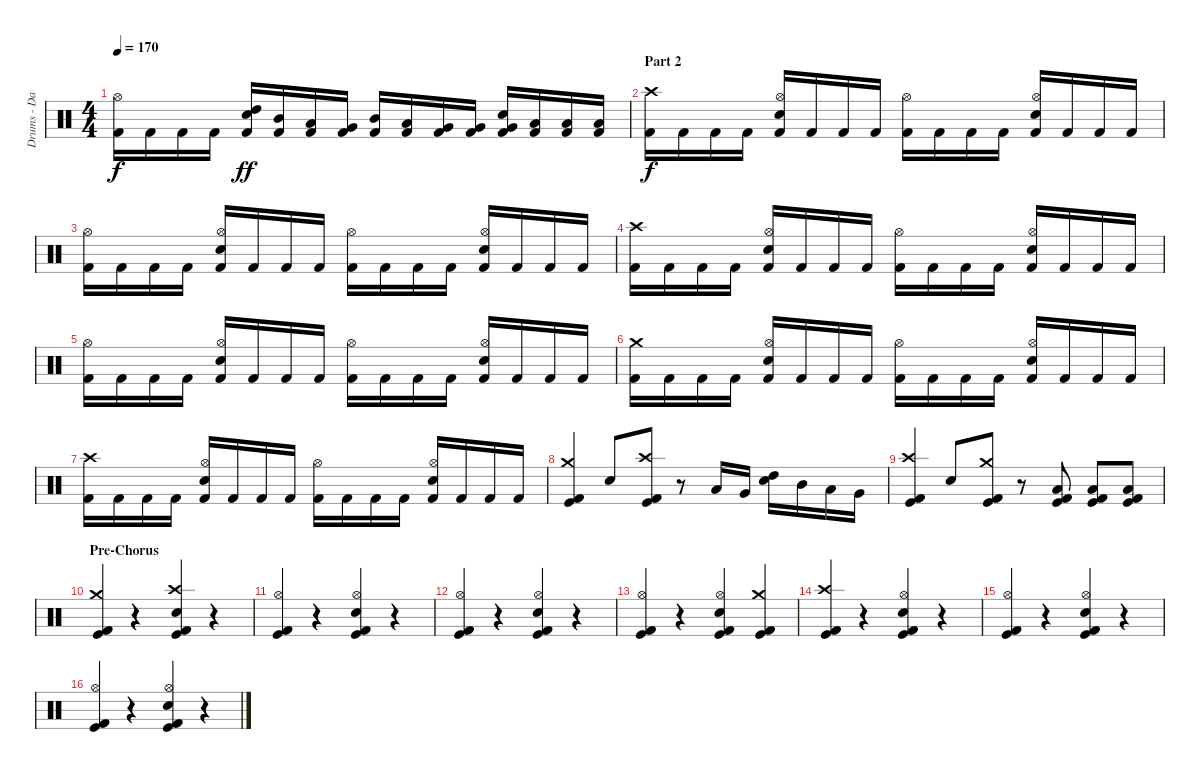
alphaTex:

\track ("Drums - Daniel Zimmermann" "Drums - Da") {instrument percussion}
\staff {score}
\articulation defaults
\ts (4 4)
\tempo 170
\clef neutral
\ks c
("Kick (hit) 2" "Hi-Hat (open)").16{dy f} "Kick (hit) 2".16 "Kick (hit) 2".16 "Kick (hit) 2".16 ("Kick (hit) 2" "Electric Snare (hit)" "High Tom (hit)").16{dy ff} ("Kick (hit) 2" "Mid Tom (hit)").16 ("Kick (hit) 2" "Low Tom (hit)").16 ("Kick (hit) 2" "Very Low Tom (hit)").16 ("Kick (hit) 2" "Mid Tom (hit)").16 ("Kick (hit) 2" "Low Tom (hit)").16 ("Kick (hit) 2" "Very Low Tom (hit)").16 ("Kick (hit) 2" "Very Low Tom (hit)").16 ("Kick (hit) 2" "Electric Snare (hit)" "Very Low Tom (hit)").16 ("Kick (hit) 2" "Low Floor Tom (hit)").16 ("Kick (hit) 2" "Low Floor Tom (hit)").16 ("Kick (hit) 2" "Low Floor Tom (hit)").16 |
\section ("" "Part 2")
("Kick (hit) 2" "Crash high (hit)").16{dy f} "Kick (hit) 2".16 "Kick (hit) 2".16 "Kick (hit) 2".16 ("Kick (hit) 2" "Electric Snare (hit)" "Hi-Hat (open)").16 "Kick (hit) 2".16 "Kick (hit) 2".16 "Kick (hit) 2".16 ("Kick (hit) 2" "Hi-Hat (open)").16 "Kick (hit) 2".16 "Kick (hit) 2".16 "Kick (hit) 2".16 ("Kick (hit) 2" "Electric Snare (hit)" "Hi-Hat (open)").16 "Kick (hit) 2".16 "Kick (hit) 2".16 "Kick (hit) 2".16 |
("Kick (hit) 2" "Hi-Hat (open)").16 "Kick (hit) 2".16 "Kick (hit) 2".16 "Kick (hit) 2".16 ("Kick (hit) 2" "Electric Snare (hit)" "Hi-Hat (open)").16 "Kick (hit) 2".16 "Kick (hit) 2".16 "Kick (hit) 2".16 ("Kick (hit) 2" "Hi-Hat (open)").16 "Kick (hit) 2".16 "Kick (hit) 2".16 "Kick (hit) 2".16 ("Kick (hit) 2" "Electric Snare (hit)" "Hi-Hat (open)").16 "Kick (hit) 2".16 "Kick (hit) 2".16 "Kick (hit) 2".16 |
("Kick (hit) 2" "Crash high (hit)").16 "Kick (hit) 2".16 "Kick (hit) 2".16 "Kick (hit) 2".16 ("Kick (hit) 2" "Electric Snare (hit)" "Hi-Hat (open)").16 "Kick (hit) 2".16 "Kick (hit) 2".16 "Kick (hit) 2".16 ("Kick (hit) 2" "Hi-Hat (open)").16 "Kick (hit) 2".16 "Kick (hit) 2".16 "Kick (hit) 2".16 ("Kick (hit) 2" "Electric Snare (hit)" "Hi-Hat (open)").16 "Kick (hit) 2".16 "Kick (hit) 2".16 "Kick (hit) 2".16 |
("Kick (hit) 2" "Hi-Hat (open)").16 "Kick (hit) 2".16 "Kick (hit) 2".16 "Kick (hit) 2".16 ("Kick (hit) 2" "Electric Snare (hit)" "Hi-Hat (open)").16 "Kick (hit) 2".16 "Kick (hit) 2".16 "Kick (hit) 2".16 ("Kick (hit) 2" "Hi-Hat (open)").16 "Kick (hit) 2".16 "Kick (hit) 2".16 "Kick (hit) 2".16 ("Kick (hit) 2" "Electric Snare (hit)" "Hi-Hat (open)").16 "Kick (hit) 2".16 "Kick (hit) 2".16 "Kick (hit) 2".16 |
("Kick (hit) 2" "Crash medium (hit)").16 "Kick (hit) 2".16 "Kick (hit) 2".16 "Kick (hit) 2".16 ("Kick (hit) 2" "Electric Snare (hit)" "Hi-Hat (open)").16 "Kick (hit) 2".16 "Kick (hit) 2".16 "Kick (hit) 2".16 ("Kick (hit) 2" "Hi-Hat (open)").16 "Kick (hit) 2".16 "Kick (hit) 2".16 "Kick (hit) 2".16 ("Kick (hit) 2" "Electric Snare (hit)" "Hi-Hat (open)").16 "Kick (hit) 2".16 "Kick (hit) 2".16 "Kick (hit) 2".16 |
("Kick (hit) 2" "Crash high (hit)").16 "Kick (hit) 2".16 "Kick (hit) 2".16 "Kick (hit) 2".16 ("Kick (hit) 2" "Electric Snare (hit)" "Hi-Hat (open)").16 "Kick (hit) 2".16 "Kick (hit) 2".16 "Kick (hit) 2".16 ("Kick (hit) 2" "Hi-Hat (open)").16 "Kick (hit) 2".16 "Kick (hit) 2".16 "Kick (hit) 2".16 ("Kick (hit) 2" "Electric Snare (hit)" "Hi-Hat (open)").16 "Kick (hit) 2".16 "Kick (hit) 2".16 "Kick (hit) 2".16 |
("Kick (hit) 2" "Kick (hit)" "Crash medium (hit)").4 "Electric Snare (hit)".8 ("Kick (hit) 2" "Kick (hit)" "Crash high (hit)").8 r.8 "Low Tom (hit)".16 "Very Low Tom (hit)".16 ("High Tom (hit)" "Electric Snare (hit)").16 "Mid Tom (hit)".16 "Low Tom (hit)".16 "Very Low Tom (hit)".16 |
("Kick (hit) 2" "Kick (hit)" "Crash high (hit)").4 "Electric Snare (hit)".8 ("Kick (hit) 2" "Kick (hit)" "Crash medium (hit)").8 r.8 ("Kick (hit) 2" "Kick (hit)" "Low Tom (hit)").8 ("Kick (hit) 2" "Kick (hit)" "Low Tom (hit)").8 ("Kick (hit) 2" "Kick (hit)" "Low Tom (hit)").8 |
\section ("" "Pre-Chorus")
("Kick (hit) 2" "Kick (hit)" "Crash medium (hit)").4 r.4 ("Kick (hit) 2" "Kick (hit)" "Electric Snare (hit)" "Crash high (hit)").4 r.4 |
("Kick (hit) 2" "Kick (hit)" "Hi-Hat (open)").4 r.4 ("Kick (hit) 2" "Kick (hit)" "Electric Snare (hit)" "Hi-Hat (open)").4 r.4 |
("Kick (hit) 2" "Kick (hit)" "Hi-Hat (open)").4 r.4 ("Kick (hit) 2" "Kick (hit)" "Electric Snare (hit)" "Hi-Hat (open)").4 r.4 |
("Kick (hit) 2" "Kick (hit)" "Hi-Hat (open)").4 r.4 ("Kick (hit) 2" "Kick (hit)" "Electric Snare (hit)" "Hi-Hat (open)").4 ("Kick (hit) 2" "Kick (hit)" "Crash medium (hit)").4 |
("Kick (hit) 2" "Kick (hit)" "Crash high (hit)").4 r.4 ("Kick (hit) 2" "Kick (hit)" "Electric Snare (hit)" "Hi-Hat (open)").4 r.4 |
("Kick (hit) 2" "Kick (hit)" "Hi-Hat (open)").4 r.4 ("Kick (hit) 2" "Kick (hit)" "Electric Snare (hit)" "Hi-Hat (open)").4 r.4 |
("Kick (hit) 2" "Kick (hit)" "Hi-Hat (open)").4 r.4 ("Kick (hit) 2" "Kick (hit)" "Electric Snare (hit)" "Hi-Hat (open)").4 r.4
